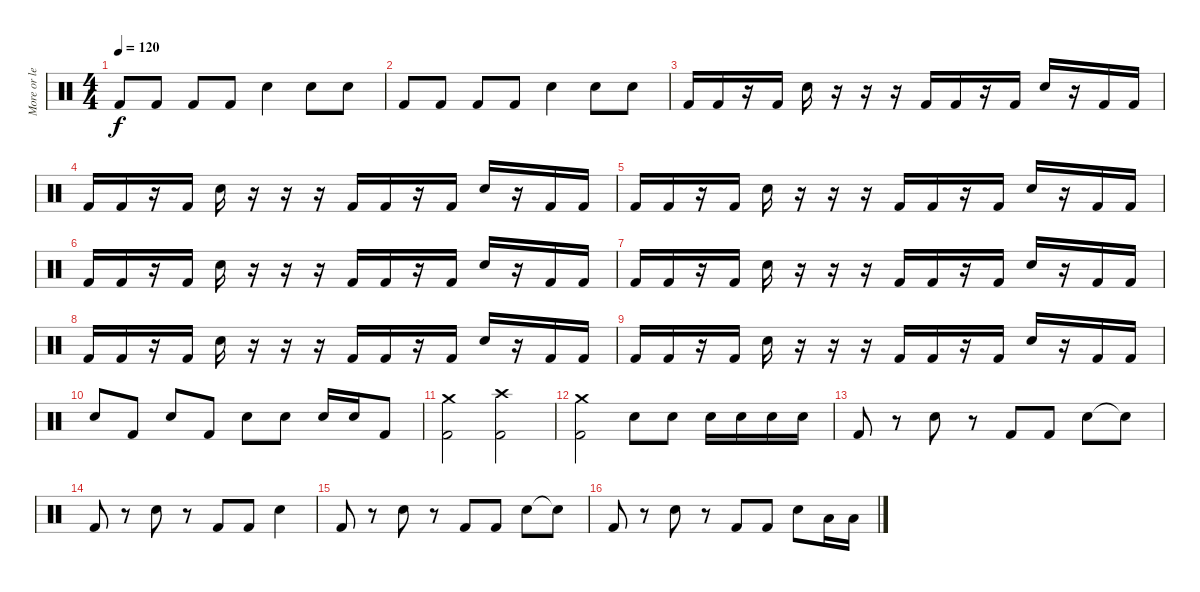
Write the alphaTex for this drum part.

\track ("More or less Drumming" "More or le") {instrument percussion}
\staff {score}
\articulation defaults
\ts (4 4)
\tempo 120
\clef neutral
\ks c "Kick (hit) 2".8{dy f} "Kick (hit) 2".8 "Kick (hit) 2".8 "Kick (hit) 2".8 "Electric Snare (hit)".4 "Electric Snare (hit)".8 "Electric Snare (hit)".8
|
"Kick (hit) 2".8 "Kick (hit) 2".8 "Kick (hit) 2".8 "Kick (hit) 2".8 "Electric Snare (hit)".4 "Electric Snare (hit)".8 "Electric Snare (hit)".8 |
"Kick (hit) 2".16 "Kick (hit) 2".16 r.16 "Kick (hit) 2".16 "Electric Snare (hit)".16 r.16 r.16 r.16 "Kick (hit) 2".16 "Kick (hit) 2".16 r.16 "Kick (hit) 2".16 "Electric Snare (hit)".16 r.16 "Kick (hit) 2".16 "Kick (hit) 2".16 |
"Kick (hit) 2".16 "Kick (hit) 2".16 r.16 "Kick (hit) 2".16 "Electric Snare (hit)".16 r.16 r.16 r.16 "Kick (hit) 2".16 "Kick (hit) 2".16 r.16 "Kick (hit) 2".16 "Electric Snare (hit)".16 r.16 "Kick (hit) 2".16 "Kick (hit) 2".16 |
"Kick (hit) 2".16 "Kick (hit) 2".16 r.16 "Kick (hit) 2".16 "Electric Snare (hit)".16 r.16 r.16 r.16 "Kick (hit) 2".16 "Kick (hit) 2".16 r.16 "Kick (hit) 2".16 "Electric Snare (hit)".16 r.16 "Kick (hit) 2".16 "Kick (hit) 2".16 |
"Kick (hit) 2".16 "Kick (hit) 2".16 r.16 "Kick (hit) 2".16 "Electric Snare (hit)".16 r.16 r.16 r.16 "Kick (hit) 2".16 "Kick (hit) 2".16 r.16 "Kick (hit) 2".16 "Electric Snare (hit)".16 r.16 "Kick (hit) 2".16 "Kick (hit) 2".16 |
"Kick (hit) 2".16 "Kick (hit) 2".16 r.16 "Kick (hit) 2".16 "Electric Snare (hit)".16 r.16 r.16 r.16 "Kick (hit) 2".16 "Kick (hit) 2".16 r.16 "Kick (hit) 2".16 "Electric Snare (hit)".16 r.16 "Kick (hit) 2".16 "Kick (hit) 2".16 |
"Kick (hit) 2".16 "Kick (hit) 2".16 r.16 "Kick (hit) 2".16 "Electric Snare (hit)".16 r.16 r.16 r.16 "Kick (hit) 2".16 "Kick (hit) 2".16 r.16 "Kick (hit) 2".16 "Electric Snare (hit)".16 r.16 "Kick (hit) 2".16 "Kick (hit) 2".16 |
"Kick (hit) 2".16 "Kick (hit) 2".16 r.16 "Kick (hit) 2".16 "Electric Snare (hit)".16 r.16 r.16 r.16 "Kick (hit) 2".16 "Kick (hit) 2".16 r.16 "Kick (hit) 2".16 "Electric Snare (hit)".16 r.16 "Kick (hit) 2".16 "Kick (hit) 2".16 |
"Electric Snare (hit)".8 "Kick (hit) 2".8 "Electric Snare (hit)".8 "Kick (hit) 2".8 "Electric Snare (hit)".8 "Electric Snare (hit)".8 "Electric Snare (hit)".16 "Electric Snare (hit)".16 "Kick (hit) 2".8 |
("Kick (hit) 2" "Crash medium (hit)").2 ("Crash high (hit)" "Kick (hit) 2").2 |
("Crash medium (hit)" "Kick (hit) 2").2 "Electric Snare (hit)".8 "Electric Snare (hit)".8 "Electric Snare (hit)".16 "Electric Snare (hit)".16 "Electric Snare (hit)".16 "Electric Snare (hit)".16 |
"Kick (hit) 2".8 r.8 "Electric Snare (hit)".8 r.8 "Kick (hit) 2".8 "Kick (hit) 2".8 "Electric Snare (hit)".8 "Snare (hit)"{t}.8 |
"Kick (hit) 2".8 r.8 "Electric Snare (hit)".8 r.8 "Kick (hit) 2".8 "Kick (hit) 2".8 "Electric Snare (hit)".4 |
"Kick (hit) 2".8 r.8 "Electric Snare (hit)".8 r.8 "Kick (hit) 2".8 "Kick (hit) 2".8 "Electric Snare (hit)".8 "Snare (hit)"{t}.8 |
"Kick (hit) 2".8 r.8 "Electric Snare (hit)".8 r.8 "Kick (hit) 2".8 "Kick (hit) 2".8 "Electric Snare (hit)".8 "Low Tom (hit)".16 "Low Tom (hit)".16
